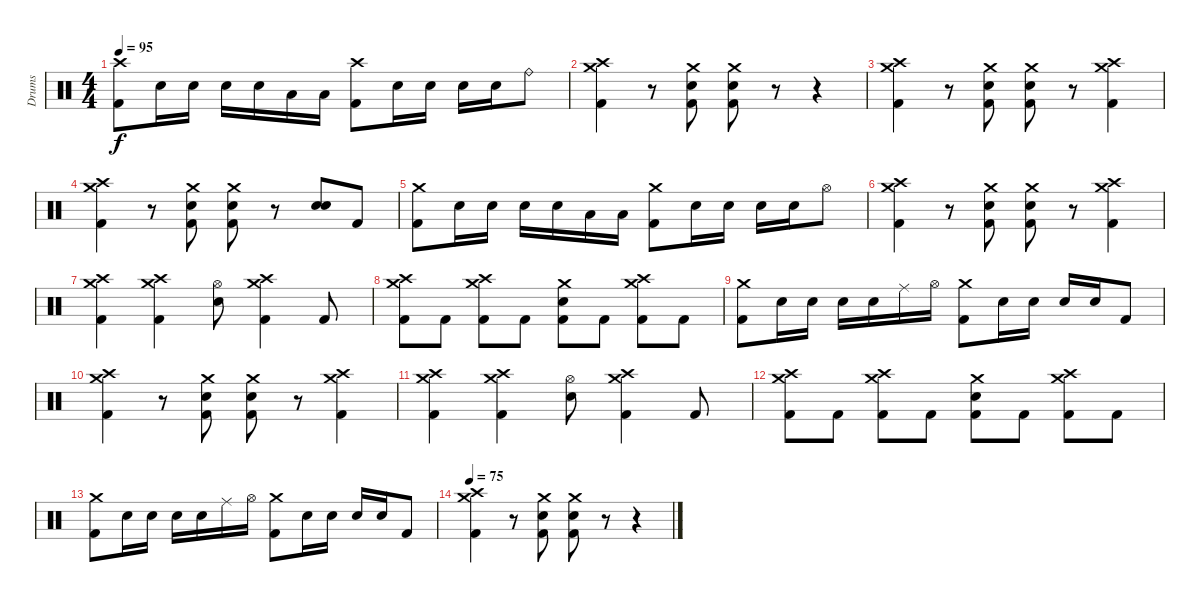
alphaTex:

\track ("Drums" "Drums") {instrument percussion}
\staff {score}
\articulation defaults
\ts (4 4)
\tempo 95
\clef neutral
\ks c
("Crash high (hit)" "Kick (hit) 2").8{dy f} "Electric Snare (hit)".16 "Electric Snare (hit)".16 "Electric Snare (hit)".16 "Electric Snare (hit)".16 "Low Tom (hit)".16 "Low Tom (hit)".16 ("Crash high (hit)" "Kick (hit) 2").8 "Electric Snare (hit)".16 "Electric Snare (hit)".16 "Electric Snare (hit)".16 "Electric Snare (hit)".16 "Ride (bell)".8 |
("Crash high (hit)" "Crash medium (hit)" "Kick (hit) 2").4 r.8 ("Crash medium (hit)" "Electric Snare (hit)" "Kick (hit) 2").8 ("Crash medium (hit)" "Electric Snare (hit)" "Kick (hit) 2").8 r.8 r.4 |
("Crash high (hit)" "Crash medium (hit)" "Kick (hit) 2").4 r.8 ("Crash medium (hit)" "Electric Snare (hit)" "Kick (hit) 2").8 ("Crash medium (hit)" "Electric Snare (hit)" "Kick (hit) 2").8 r.8 ("Crash high (hit)" "Crash medium (hit)" "Kick (hit) 2").4 |
("Crash high (hit)" "Crash medium (hit)" "Kick (hit) 2").4 r.8 ("Crash medium (hit)" "Electric Snare (hit)" "Kick (hit) 2").8 ("Crash medium (hit)" "Electric Snare (hit)" "Kick (hit) 2").8 r.8 ("Electric Snare (hit)" "Electric Snare (hit)").8{bu 120} "Kick (hit) 2".8 |
("Crash medium (hit)" "Kick (hit) 2").8 "Electric Snare (hit)".16 "Electric Snare (hit)".16 "Electric Snare (hit)".16 "Electric Snare (hit)".16 "Low Tom (hit)".16 "Low Tom (hit)".16 ("Crash medium (hit)" "Kick (hit) 2").8 "Electric Snare (hit)".16 "Electric Snare (hit)".16 "Electric Snare (hit)".16 "Electric Snare (hit)".16 "Hi-Hat (open)".8 |
("Crash high (hit)" "Crash medium (hit)" "Kick (hit) 2").4 r.8 ("Crash medium (hit)" "Electric Snare (hit)" "Kick (hit) 2").8 ("Crash medium (hit)" "Electric Snare (hit)" "Kick (hit) 2").8 r.8 ("Crash high (hit)" "Crash medium (hit)" "Kick (hit) 2").4 |
("Crash high (hit)" "Crash medium (hit)" "Kick (hit) 2").4 ("Crash high (hit)" "Crash medium (hit)" "Kick (hit) 2").4 ("Hi-Hat (open)" "Electric Snare (hit)").8 ("Crash high (hit)" "Crash medium (hit)" "Kick (hit) 2").4 "Kick (hit) 2".8 |
("Crash high (hit)" "Crash medium (hit)" "Kick (hit) 2").8 "Kick (hit) 2".8 ("Crash high (hit)" "Crash medium (hit)" "Kick (hit) 2").8 "Kick (hit) 2".8 ("Crash medium (hit)" "Electric Snare (hit)" "Kick (hit) 2").8 "Kick (hit) 2".8 ("Crash high (hit)" "Crash medium (hit)" "Kick (hit) 2").8 "Kick (hit) 2".8 |
("Crash medium (hit)" "Kick (hit) 2").8 "Electric Snare (hit)".16 "Electric Snare (hit)".16 "Electric Snare (hit)".16 "Electric Snare (hit)".16 "Ride (middle)".16 "Hi-Hat (open)".16 ("Crash medium (hit)" "Kick (hit) 2").8 "Electric Snare (hit)".16 "Electric Snare (hit)".16 "Electric Snare (hit)".16 "Electric Snare (hit)".16 "Kick (hit) 2".8 |
("Crash high (hit)" "Crash medium (hit)" "Kick (hit) 2").4 r.8 ("Crash medium (hit)" "Electric Snare (hit)" "Kick (hit) 2").8 ("Crash medium (hit)" "Electric Snare (hit)" "Kick (hit) 2").8 r.8 ("Crash high (hit)" "Crash medium (hit)" "Kick (hit) 2").4 |
("Crash high (hit)" "Crash medium (hit)" "Kick (hit) 2").4 ("Crash high (hit)" "Crash medium (hit)" "Kick (hit) 2").4 ("Hi-Hat (open)" "Electric Snare (hit)").8 ("Crash high (hit)" "Crash medium (hit)" "Kick (hit) 2").4 "Kick (hit) 2".8 |
("Crash high (hit)" "Crash medium (hit)" "Kick (hit) 2").8 "Kick (hit) 2".8 ("Crash high (hit)" "Crash medium (hit)" "Kick (hit) 2").8 "Kick (hit) 2".8 ("Crash medium (hit)" "Electric Snare (hit)" "Kick (hit) 2").8 "Kick (hit) 2".8 ("Crash high (hit)" "Crash medium (hit)" "Kick (hit) 2").8 "Kick (hit) 2".8 |
("Crash medium (hit)" "Kick (hit) 2").8 "Electric Snare (hit)".16 "Electric Snare (hit)".16 "Electric Snare (hit)".16 "Electric Snare (hit)".16 "Ride (middle)".16 "Hi-Hat (open)".16 ("Crash medium (hit)" "Kick (hit) 2").8 "Electric Snare (hit)".16 "Electric Snare (hit)".16 "Electric Snare (hit)".16 "Electric Snare (hit)".16 "Kick (hit) 2".8 |
\tempo 75
("Crash high (hit)" "Crash medium (hit)" "Kick (hit) 2").4 r.8 ("Crash medium (hit)" "Electric Snare (hit)" "Kick (hit) 2").8 ("Crash medium (hit)" "Electric Snare (hit)" "Kick (hit) 2").8 r.8 r.4
